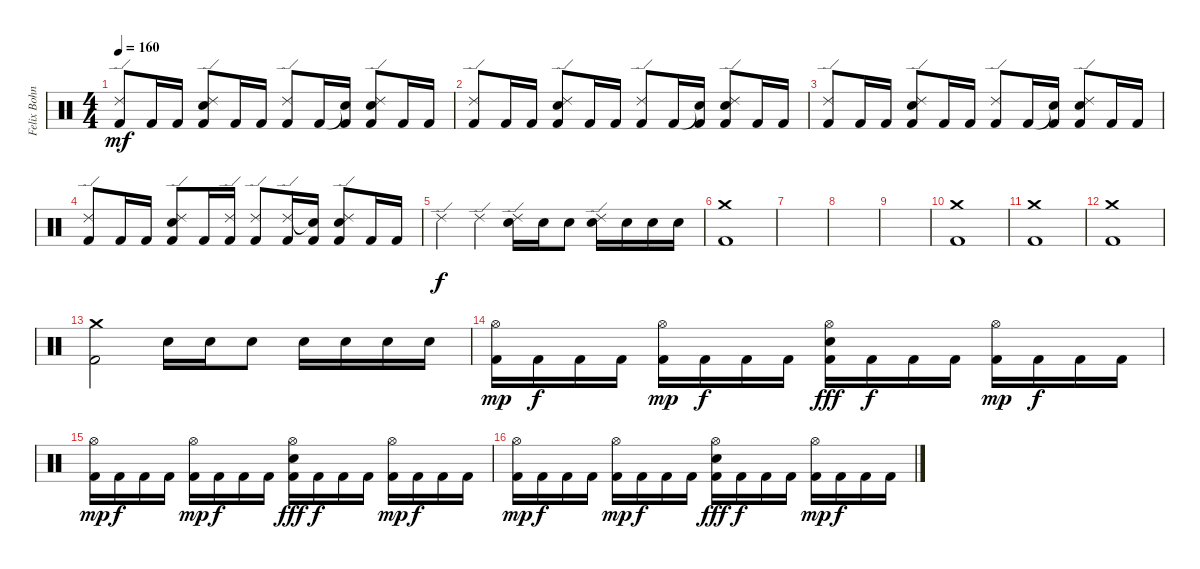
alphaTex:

\track ("Felix Bohnke" "Felix Bohn") {instrument percussion}
\staff {score}
\articulation defaults
\ts (4 4)
\tempo 160
\clef neutral
\ks c
("Ride (edge) 2" "Kick (hit) 2").8{dy mf} "Kick (hit) 2".16 "Kick (hit) 2".16 ("Ride (edge) 2" "Electric Snare (hit)" "Kick (hit) 2").8 "Kick (hit) 2".16 "Kick (hit) 2".16 ("Ride (edge) 2" "Kick (hit) 2").8 "Kick (hit) 2".16 ("Snare (hit)"{t} "Kick (hit) 2").16 ("Ride (edge) 2" "Electric Snare (hit)" "Kick (hit) 2").8 "Kick (hit) 2".16 "Kick (hit) 2".16 |
("Ride (edge) 2" "Kick (hit) 2").8 "Kick (hit) 2".16 "Kick (hit) 2".16 ("Ride (edge) 2" "Electric Snare (hit)" "Kick (hit) 2").8 "Kick (hit) 2".16 "Kick (hit) 2".16 ("Ride (edge) 2" "Kick (hit) 2").8 "Kick (hit) 2".16 ("Snare (hit)"{t} "Kick (hit) 2").16 ("Ride (edge) 2" "Electric Snare (hit)" "Kick (hit) 2").8 "Kick (hit) 2".16 "Kick (hit) 2".16 |
("Ride (edge) 2" "Kick (hit) 2").8 "Kick (hit) 2".16 "Kick (hit) 2".16 ("Ride (edge) 2" "Electric Snare (hit)" "Kick (hit) 2").8 "Kick (hit) 2".16 "Kick (hit) 2".16 ("Ride (edge) 2" "Kick (hit) 2").8 "Kick (hit) 2".16 ("Snare (hit)"{t} "Kick (hit) 2").16 ("Ride (edge) 2" "Electric Snare (hit)" "Kick (hit) 2").8 "Kick (hit) 2".16 "Kick (hit) 2".16 |
("Ride (edge) 2" "Kick (hit) 2").8 "Kick (hit) 2".16 "Kick (hit) 2".16 ("Ride (edge) 2" "Electric Snare (hit)" "Kick (hit) 2").8 "Kick (hit) 2".16 ("Ride (edge) 2" "Kick (hit) 2").16 ("Ride (edge) 2" "Kick (hit) 2").8 ("Ride (edge) 2" "Kick (hit) 2").16 ("Snare (hit)"{t} "Kick (hit) 2").16 ("Ride (edge) 2" "Electric Snare (hit)" "Kick (hit) 2").8 "Kick (hit) 2".16 "Kick (hit) 2".16 |
"Ride (edge) 2".4{dy f} "Ride (edge) 2".4 ("Ride (edge) 2" "Electric Snare (hit)").16 "Electric Snare (hit)".16 "Electric Snare (hit)".8 ("Ride (edge) 2" "Electric Snare (hit)").16 "Electric Snare (hit)".16 "Electric Snare (hit)".16 "Electric Snare (hit)".16 |
("Crash medium (hit)" "Kick (hit) 2").1 |
|
|
|
("Crash medium (hit)" "Kick (hit) 2").1 |
("Crash medium (hit)" "Kick (hit) 2").1 |
("Crash medium (hit)" "Kick (hit) 2").1 |
("Crash medium (hit)" "Kick (hit) 2").2 "Electric Snare (hit)".16 "Electric Snare (hit)".16 "Electric Snare (hit)".8 "Electric Snare (hit)".16 "Electric Snare (hit)".16 "Electric Snare (hit)".16 "Electric Snare (hit)".16 |
("Hi-Hat (open)" "Kick (hit) 2").16{dy mp} "Kick (hit) 2".16{dy f} "Kick (hit) 2".16 "Kick (hit) 2".16 ("Hi-Hat (open)" "Kick (hit) 2").16{dy mp} "Kick (hit) 2".16{dy f} "Kick (hit) 2".16 "Kick (hit) 2".16 ("Hi-Hat (open)" "Electric Snare (hit)" "Kick (hit) 2").16{dy fff} "Kick (hit) 2".16{dy f} "Kick (hit) 2".16 "Kick (hit) 2".16 ("Hi-Hat (open)" "Kick (hit) 2").16{dy mp} "Kick (hit) 2".16{dy f} "Kick (hit) 2".16 "Kick (hit) 2".16 |
("Hi-Hat (open)" "Kick (hit) 2").16{dy mp} "Kick (hit) 2".16{dy f} "Kick (hit) 2".16 "Kick (hit) 2".16 ("Hi-Hat (open)" "Kick (hit) 2").16{dy mp} "Kick (hit) 2".16{dy f} "Kick (hit) 2".16 "Kick (hit) 2".16 ("Hi-Hat (open)" "Electric Snare (hit)" "Kick (hit) 2").16{dy fff} "Kick (hit) 2".16{dy f} "Kick (hit) 2".16 "Kick (hit) 2".16 ("Hi-Hat (open)" "Kick (hit) 2").16{dy mp} "Kick (hit) 2".16{dy f} "Kick (hit) 2".16 "Kick (hit) 2".16 |
("Hi-Hat (open)" "Kick (hit) 2").16{dy mp} "Kick (hit) 2".16{dy f} "Kick (hit) 2".16 "Kick (hit) 2".16 ("Hi-Hat (open)" "Kick (hit) 2").16{dy mp} "Kick (hit) 2".16{dy f} "Kick (hit) 2".16 "Kick (hit) 2".16 ("Hi-Hat (open)" "Electric Snare (hit)" "Kick (hit) 2").16{dy fff} "Kick (hit) 2".16{dy f} "Kick (hit) 2".16 "Kick (hit) 2".16 ("Hi-Hat (open)" "Kick (hit) 2").16{dy mp} "Kick (hit) 2".16{dy f} "Kick (hit) 2".16 "Kick (hit) 2".16
